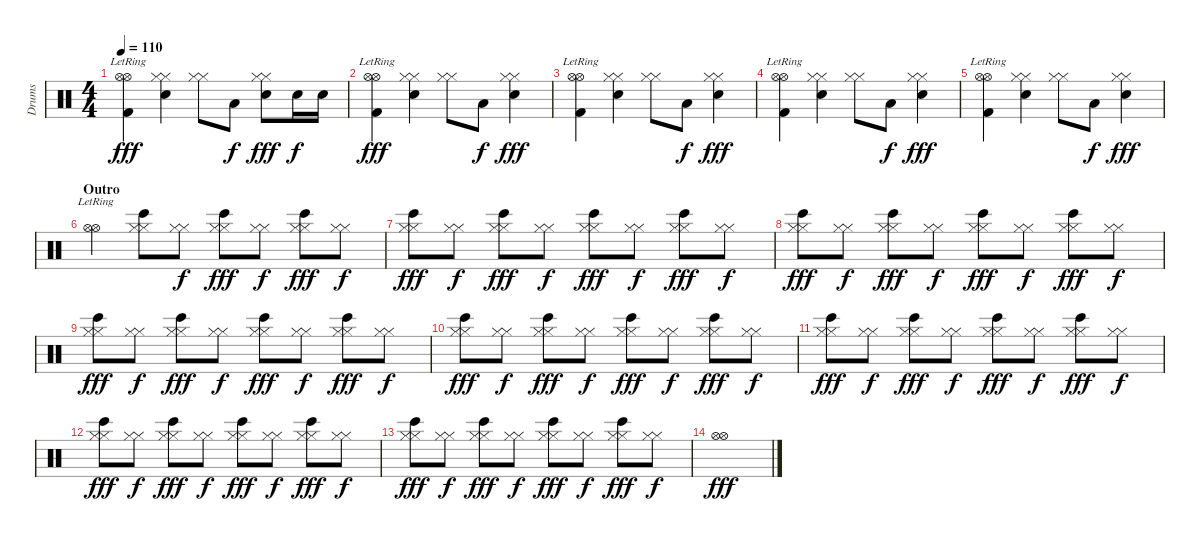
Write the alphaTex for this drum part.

\track ("Drums" "Drums") {instrument percussion}
\staff {score}
\articulation defaults
\ts (4 4)
\tempo 110
\clef neutral
\ks c
("Hi-Hat (open)"{lr} "Hi-Hat (open)"{lr} "Kick (hit) 2").4{dy fff} ("Hi-Hat (closed)" "Hi-Hat (closed)" "Electric Snare (hit)").4 ("Hi-Hat (closed)" "Hi-Hat (closed)").8 "Low Tom (hit)".8{dy f} ("Hi-Hat (closed)" "Hi-Hat (closed)" "Electric Snare (hit)").8{dy fff} "Electric Snare (hit)".16{dy f} "Electric Snare (hit)".16 |
("Hi-Hat (open)"{lr} "Hi-Hat (open)"{lr} "Kick (hit) 2").4{dy fff} ("Hi-Hat (closed)" "Hi-Hat (closed)" "Electric Snare (hit)").4 ("Hi-Hat (closed)" "Hi-Hat (closed)").8 "Low Tom (hit)".8{dy f} ("Hi-Hat (closed)" "Hi-Hat (closed)" "Electric Snare (hit)").4{dy fff} |
("Hi-Hat (open)"{lr} "Hi-Hat (open)"{lr} "Kick (hit) 2").4 ("Hi-Hat (closed)" "Hi-Hat (closed)" "Electric Snare (hit)").4 ("Hi-Hat (closed)" "Hi-Hat (closed)").8 "Low Tom (hit)".8{dy f} ("Hi-Hat (closed)" "Hi-Hat (closed)" "Electric Snare (hit)").4{dy fff} |
("Hi-Hat (open)"{lr} "Hi-Hat (open)"{lr} "Kick (hit) 2").4 ("Hi-Hat (closed)" "Hi-Hat (closed)" "Electric Snare (hit)").4 ("Hi-Hat (closed)" "Hi-Hat (closed)").8 "Low Tom (hit)".8{dy f} ("Hi-Hat (closed)" "Hi-Hat (closed)" "Electric Snare (hit)").4{dy fff} |
("Hi-Hat (open)"{lr} "Hi-Hat (open)"{lr} "Kick (hit) 2").4 ("Hi-Hat (closed)" "Hi-Hat (closed)" "Electric Snare (hit)").4 ("Hi-Hat (closed)" "Hi-Hat (closed)").8 "Low Tom (hit)".8{dy f} ("Hi-Hat (closed)" "Hi-Hat (closed)" "Electric Snare (hit)").4{dy fff} |
\section ("" "Outro")
("Hi-Hat (open)"{lr} "Hi-Hat (open)"{lr}).4 ("Hi-Hat (closed)" "Hi-Hat (closed)" "Bongo High (hit)").8 ("Hi-Hat (closed)" "Hi-Hat (closed)").8{dy f} ("Hi-Hat (closed)" "Hi-Hat (closed)" "Bongo High (hit)").8{dy fff} ("Hi-Hat (closed)" "Hi-Hat (closed)").8{dy f} ("Hi-Hat (closed)" "Hi-Hat (closed)" "Bongo High (hit)").8{dy fff} ("Hi-Hat (closed)" "Hi-Hat (closed)").8{dy f} |
("Hi-Hat (closed)" "Hi-Hat (closed)" "Bongo High (hit)").8{dy fff} ("Hi-Hat (closed)" "Hi-Hat (closed)").8{dy f} ("Hi-Hat (closed)" "Hi-Hat (closed)" "Bongo High (hit)").8{dy fff} ("Hi-Hat (closed)" "Hi-Hat (closed)").8{dy f} ("Hi-Hat (closed)" "Hi-Hat (closed)" "Bongo High (hit)").8{dy fff} ("Hi-Hat (closed)" "Hi-Hat (closed)").8{dy f} ("Hi-Hat (closed)" "Hi-Hat (closed)" "Bongo High (hit)").8{dy fff} ("Hi-Hat (closed)" "Hi-Hat (closed)").8{dy f} |
("Hi-Hat (closed)" "Hi-Hat (closed)" "Bongo High (hit)").8{dy fff} ("Hi-Hat (closed)" "Hi-Hat (closed)").8{dy f} ("Hi-Hat (closed)" "Hi-Hat (closed)" "Bongo High (hit)").8{dy fff} ("Hi-Hat (closed)" "Hi-Hat (closed)").8{dy f} ("Hi-Hat (closed)" "Hi-Hat (closed)" "Bongo High (hit)").8{dy fff} ("Hi-Hat (closed)" "Hi-Hat (closed)").8{dy f} ("Hi-Hat (closed)" "Hi-Hat (closed)" "Bongo High (hit)").8{dy fff} ("Hi-Hat (closed)" "Hi-Hat (closed)").8{dy f} |
("Hi-Hat (closed)" "Hi-Hat (closed)" "Bongo High (hit)").8{dy fff} ("Hi-Hat (closed)" "Hi-Hat (closed)").8{dy f} ("Hi-Hat (closed)" "Hi-Hat (closed)" "Bongo High (hit)").8{dy fff} ("Hi-Hat (closed)" "Hi-Hat (closed)").8{dy f} ("Hi-Hat (closed)" "Hi-Hat (closed)" "Bongo High (hit)").8{dy fff} ("Hi-Hat (closed)" "Hi-Hat (closed)").8{dy f} ("Hi-Hat (closed)" "Hi-Hat (closed)" "Bongo High (hit)").8{dy fff} ("Hi-Hat (closed)" "Hi-Hat (closed)").8{dy f} |
("Hi-Hat (closed)" "Hi-Hat (closed)" "Bongo High (hit)").8{dy fff} ("Hi-Hat (closed)" "Hi-Hat (closed)").8{dy f} ("Hi-Hat (closed)" "Hi-Hat (closed)" "Bongo High (hit)").8{dy fff} ("Hi-Hat (closed)" "Hi-Hat (closed)").8{dy f} ("Hi-Hat (closed)" "Hi-Hat (closed)" "Bongo High (hit)").8{dy fff} ("Hi-Hat (closed)" "Hi-Hat (closed)").8{dy f} ("Hi-Hat (closed)" "Hi-Hat (closed)" "Bongo High (hit)").8{dy fff} ("Hi-Hat (closed)" "Hi-Hat (closed)").8{dy f} |
("Hi-Hat (closed)" "Hi-Hat (closed)" "Bongo High (hit)").8{dy fff} ("Hi-Hat (closed)" "Hi-Hat (closed)").8{dy f} ("Hi-Hat (closed)" "Hi-Hat (closed)" "Bongo High (hit)").8{dy fff} ("Hi-Hat (closed)" "Hi-Hat (closed)").8{dy f} ("Hi-Hat (closed)" "Hi-Hat (closed)" "Bongo High (hit)").8{dy fff} ("Hi-Hat (closed)" "Hi-Hat (closed)").8{dy f} ("Hi-Hat (closed)" "Hi-Hat (closed)" "Bongo High (hit)").8{dy fff} ("Hi-Hat (closed)" "Hi-Hat (closed)").8{dy f} |
("Hi-Hat (closed)" "Hi-Hat (closed)" "Bongo High (hit)").8{dy fff} ("Hi-Hat (closed)" "Hi-Hat (closed)").8{dy f} ("Hi-Hat (closed)" "Hi-Hat (closed)" "Bongo High (hit)").8{dy fff} ("Hi-Hat (closed)" "Hi-Hat (closed)").8{dy f} ("Hi-Hat (closed)" "Hi-Hat (closed)" "Bongo High (hit)").8{dy fff} ("Hi-Hat (closed)" "Hi-Hat (closed)").8{dy f} ("Hi-Hat (closed)" "Hi-Hat (closed)" "Bongo High (hit)").8{dy fff} ("Hi-Hat (closed)" "Hi-Hat (closed)").8{dy f} |
("Hi-Hat (closed)" "Hi-Hat (closed)" "Bongo High (hit)").8{dy fff} ("Hi-Hat (closed)" "Hi-Hat (closed)").8{dy f} ("Hi-Hat (closed)" "Hi-Hat (closed)" "Bongo High (hit)").8{dy fff} ("Hi-Hat (closed)" "Hi-Hat (closed)").8{dy f} ("Hi-Hat (closed)" "Hi-Hat (closed)" "Bongo High (hit)").8{dy fff} ("Hi-Hat (closed)" "Hi-Hat (closed)").8{dy f} ("Hi-Hat (closed)" "Hi-Hat (closed)" "Bongo High (hit)").8{dy fff} ("Hi-Hat (closed)" "Hi-Hat (closed)").8{dy f} |
("Hi-Hat (open)" "Hi-Hat (open)").1{dy fff}
